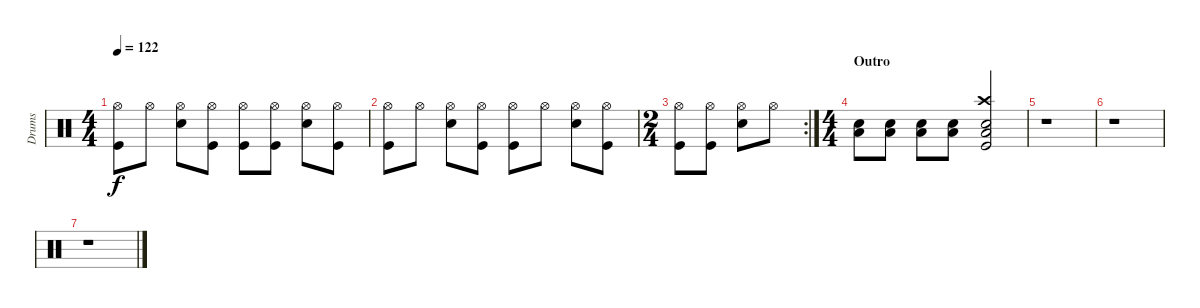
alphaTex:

\track ("Drums" "Drums") {instrument percussion}
\staff {score}
\articulation defaults
\ts (4 4)
\tempo 122
\clef neutral
\ks c
("Hi-Hat (open)" "Kick (hit)").8{dy f} "Hi-Hat (open)".8 ("Hi-Hat (open)" "Snare (hit) 2").8 ("Hi-Hat (open)" "Kick (hit)").8 ("Hi-Hat (open)" "Kick (hit)").8 ("Hi-Hat (open)" "Kick (hit)").8 ("Hi-Hat (open)" "Snare (hit) 2").8 ("Hi-Hat (open)" "Kick (hit)").8 |
("Hi-Hat (open)" "Kick (hit)").8 "Hi-Hat (open)".8 ("Hi-Hat (open)" "Snare (hit) 2").8 ("Hi-Hat (open)" "Kick (hit)").8 ("Hi-Hat (open)" "Kick (hit)").8 "Hi-Hat (open)".8 ("Hi-Hat (open)" "Snare (hit) 2").8 ("Hi-Hat (open)" "Kick (hit)").8 |
\rc 2
\ts (2 4)
("Hi-Hat (open)" "Kick (hit)").8 ("Hi-Hat (open)" "Kick (hit)").8 ("Hi-Hat (open)" "Snare (hit) 2").8 "Hi-Hat (open)".8 |
\ts (4 4)
\section ("" "Outro")
("Low Floor Tom (hit)" "Snare (hit) 2").8 ("Low Floor Tom (hit)" "Snare (hit) 2").8 ("Low Floor Tom (hit)" "Snare (hit) 2").8 ("Low Floor Tom (hit)" "Snare (hit) 2").8 ("Crash high (hit)" "Low Tom (hit)" "Snare (hit) 2" "Kick (hit)").2 |
r.1 |
r.1 |
r.1
